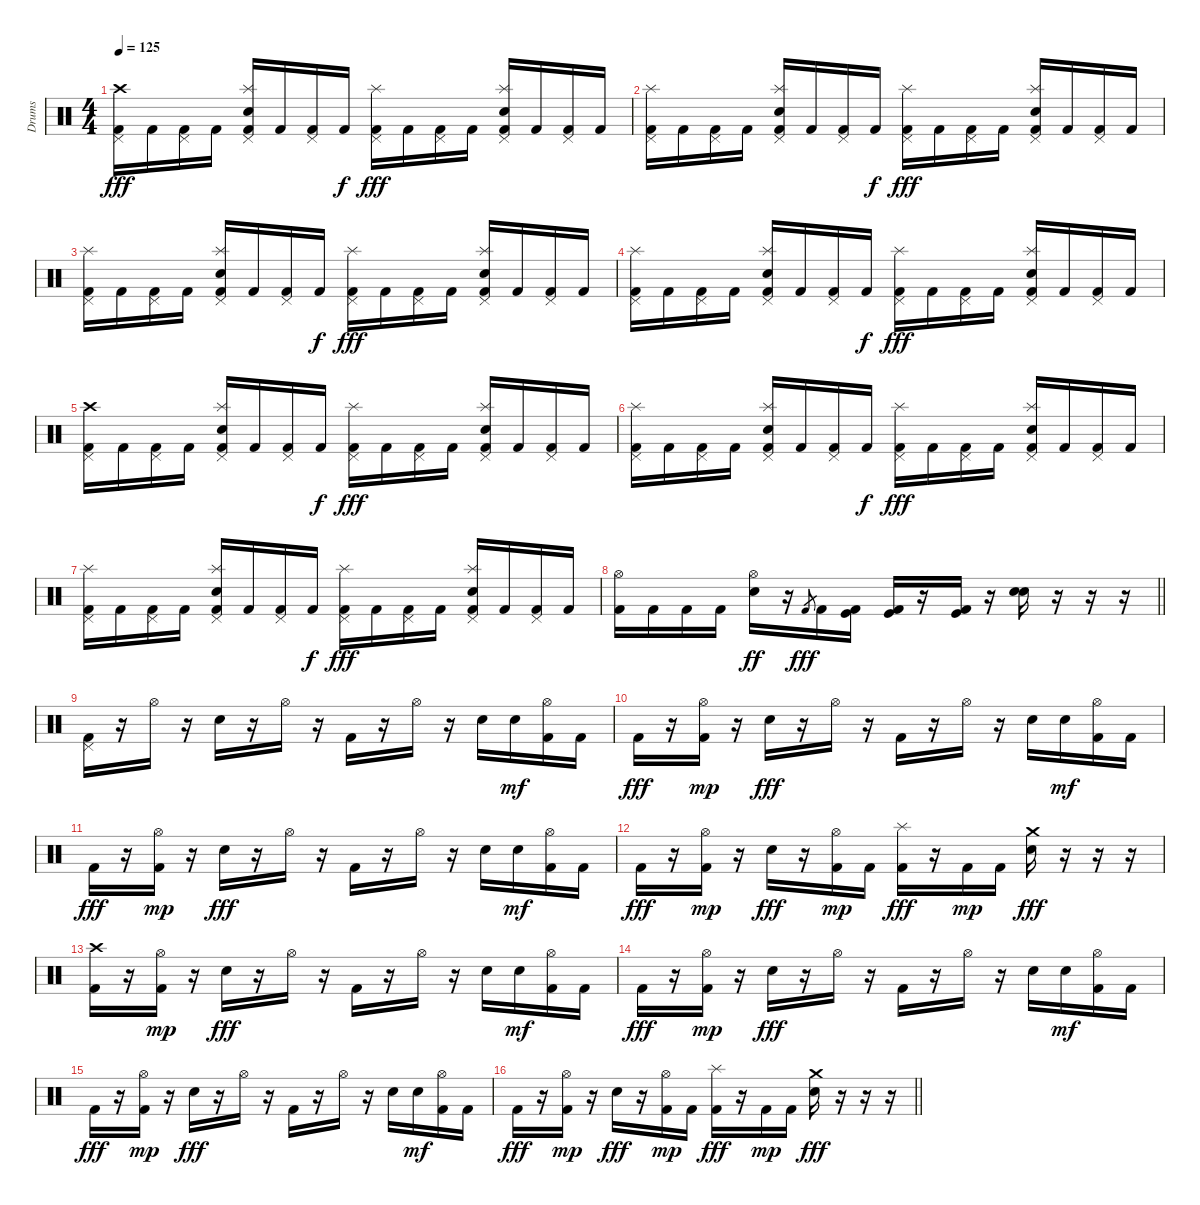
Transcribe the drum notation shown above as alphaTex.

\track ("Drums " "Drums ") {instrument percussion}
\staff {score}
\articulation defaults
\ts (4 4)
\tempo 125
\clef neutral
\ks c
("Crash high (hit)" "Pedal Hi-Hat (hit)" "Kick (hit) 2").16{dy fff} "Kick (hit) 2".16 ("Pedal Hi-Hat (hit)" "Kick (hit) 2").16 "Kick (hit) 2".16 ("Splash (hit)" "Pedal Hi-Hat (hit)" "Electric Snare (hit)" "Kick (hit) 2").16 "Kick (hit) 2".16 ("Pedal Hi-Hat (hit)" "Kick (hit) 2").16 "Kick (hit) 2".16{dy f} ("Splash (hit)" "Pedal Hi-Hat (hit)" "Kick (hit) 2").16{dy fff} "Kick (hit) 2".16 ("Pedal Hi-Hat (hit)" "Kick (hit) 2").16 "Kick (hit) 2".16 ("Splash (hit)" "Pedal Hi-Hat (hit)" "Electric Snare (hit)" "Kick (hit) 2").16 "Kick (hit) 2".16 ("Pedal Hi-Hat (hit)" "Kick (hit) 2").16 "Kick (hit) 2".16 |
("Splash (hit)" "Pedal Hi-Hat (hit)" "Kick (hit) 2").16 "Kick (hit) 2".16 ("Pedal Hi-Hat (hit)" "Kick (hit) 2").16 "Kick (hit) 2".16 ("Splash (hit)" "Pedal Hi-Hat (hit)" "Electric Snare (hit)" "Kick (hit) 2").16 "Kick (hit) 2".16 ("Pedal Hi-Hat (hit)" "Kick (hit) 2").16 "Kick (hit) 2".16{dy f} ("Splash (hit)" "Pedal Hi-Hat (hit)" "Kick (hit) 2").16{dy fff} "Kick (hit) 2".16 ("Pedal Hi-Hat (hit)" "Kick (hit) 2").16 "Kick (hit) 2".16 ("Splash (hit)" "Pedal Hi-Hat (hit)" "Electric Snare (hit)" "Kick (hit) 2").16 "Kick (hit) 2".16 ("Pedal Hi-Hat (hit)" "Kick (hit) 2").16 "Kick (hit) 2".16 |
("Splash (hit)" "Pedal Hi-Hat (hit)" "Kick (hit) 2").16 "Kick (hit) 2".16 ("Pedal Hi-Hat (hit)" "Kick (hit) 2").16 "Kick (hit) 2".16 ("Splash (hit)" "Pedal Hi-Hat (hit)" "Electric Snare (hit)" "Kick (hit) 2").16 "Kick (hit) 2".16 ("Pedal Hi-Hat (hit)" "Kick (hit) 2").16 "Kick (hit) 2".16{dy f} ("Splash (hit)" "Pedal Hi-Hat (hit)" "Kick (hit) 2").16{dy fff} "Kick (hit) 2".16 ("Pedal Hi-Hat (hit)" "Kick (hit) 2").16 "Kick (hit) 2".16 ("Splash (hit)" "Pedal Hi-Hat (hit)" "Electric Snare (hit)" "Kick (hit) 2").16 "Kick (hit) 2".16 ("Pedal Hi-Hat (hit)" "Kick (hit) 2").16 "Kick (hit) 2".16 |
("Splash (hit)" "Pedal Hi-Hat (hit)" "Kick (hit) 2").16 "Kick (hit) 2".16 ("Pedal Hi-Hat (hit)" "Kick (hit) 2").16 "Kick (hit) 2".16 ("Splash (hit)" "Pedal Hi-Hat (hit)" "Electric Snare (hit)" "Kick (hit) 2").16 "Kick (hit) 2".16 ("Pedal Hi-Hat (hit)" "Kick (hit) 2").16 "Kick (hit) 2".16{dy f} ("Splash (hit)" "Pedal Hi-Hat (hit)" "Kick (hit) 2").16{dy fff} "Kick (hit) 2".16 ("Pedal Hi-Hat (hit)" "Kick (hit) 2").16 "Kick (hit) 2".16 ("Splash (hit)" "Pedal Hi-Hat (hit)" "Electric Snare (hit)" "Kick (hit) 2").16 "Kick (hit) 2".16 ("Pedal Hi-Hat (hit)" "Kick (hit) 2").16 "Kick (hit) 2".16 |
("Crash high (hit)" "Pedal Hi-Hat (hit)" "Kick (hit) 2").16 "Kick (hit) 2".16 ("Pedal Hi-Hat (hit)" "Kick (hit) 2").16 "Kick (hit) 2".16 ("Splash (hit)" "Pedal Hi-Hat (hit)" "Electric Snare (hit)" "Kick (hit) 2").16 "Kick (hit) 2".16 ("Pedal Hi-Hat (hit)" "Kick (hit) 2").16 "Kick (hit) 2".16{dy f} ("Splash (hit)" "Pedal Hi-Hat (hit)" "Kick (hit) 2").16{dy fff} "Kick (hit) 2".16 ("Pedal Hi-Hat (hit)" "Kick (hit) 2").16 "Kick (hit) 2".16 ("Splash (hit)" "Pedal Hi-Hat (hit)" "Electric Snare (hit)" "Kick (hit) 2").16 "Kick (hit) 2".16 ("Pedal Hi-Hat (hit)" "Kick (hit) 2").16 "Kick (hit) 2".16 |
("Splash (hit)" "Pedal Hi-Hat (hit)" "Kick (hit) 2").16 "Kick (hit) 2".16 ("Pedal Hi-Hat (hit)" "Kick (hit) 2").16 "Kick (hit) 2".16 ("Splash (hit)" "Pedal Hi-Hat (hit)" "Electric Snare (hit)" "Kick (hit) 2").16 "Kick (hit) 2".16 ("Pedal Hi-Hat (hit)" "Kick (hit) 2").16 "Kick (hit) 2".16{dy f} ("Splash (hit)" "Pedal Hi-Hat (hit)" "Kick (hit) 2").16{dy fff} "Kick (hit) 2".16 ("Pedal Hi-Hat (hit)" "Kick (hit) 2").16 "Kick (hit) 2".16 ("Splash (hit)" "Pedal Hi-Hat (hit)" "Electric Snare (hit)" "Kick (hit) 2").16 "Kick (hit) 2".16 ("Pedal Hi-Hat (hit)" "Kick (hit) 2").16 "Kick (hit) 2".16 |
("Splash (hit)" "Pedal Hi-Hat (hit)" "Kick (hit) 2").16 "Kick (hit) 2".16 ("Pedal Hi-Hat (hit)" "Kick (hit) 2").16 "Kick (hit) 2".16 ("Splash (hit)" "Pedal Hi-Hat (hit)" "Electric Snare (hit)" "Kick (hit) 2").16 "Kick (hit) 2".16 ("Pedal Hi-Hat (hit)" "Kick (hit) 2").16 "Kick (hit) 2".16{dy f} ("Splash (hit)" "Pedal Hi-Hat (hit)" "Kick (hit) 2").16{dy fff} "Kick (hit) 2".16 ("Pedal Hi-Hat (hit)" "Kick (hit) 2").16 "Kick (hit) 2".16 ("Splash (hit)" "Pedal Hi-Hat (hit)" "Electric Snare (hit)" "Kick (hit) 2").16 "Kick (hit) 2".16 ("Pedal Hi-Hat (hit)" "Kick (hit) 2").16 "Kick (hit) 2".16 |
\barLineRight lightlight
("Hi-Hat (open)" "Kick (hit) 2").16 "Kick (hit) 2".16 "Kick (hit) 2".16 "Kick (hit) 2".16 ("Hi-Hat (open)" "Electric Snare (hit)").16{dy ff} r.16 "Kick (hit) 2".8{gr dy fff} "Kick (hit) 2".16 ("Kick (hit) 2" "Kick (hit)").16 ("Kick (hit) 2" "Kick (hit)").16 r.16 ("Kick (hit) 2" "Kick (hit)").16 r.16 ("Snare (hit)" "Electric Snare (hit)").16 r.16 r.16 r.16 |
("Pedal Hi-Hat (hit)" "Kick (hit) 2").16 r.16 "Hi-Hat (open)".16 r.16 "Electric Snare (hit)".16 r.16 "Hi-Hat (open)".16 r.16 "Kick (hit) 2".16 r.16 "Hi-Hat (open)".16 r.16 "Electric Snare (hit)".16 "Electric Snare (hit)".16{dy mf} ("Hi-Hat (open)" "Kick (hit) 2").16 "Kick (hit) 2".16 |
"Kick (hit) 2".16{dy fff} r.16 ("Hi-Hat (open)" "Kick (hit) 2").16{dy mp} r.16 "Electric Snare (hit)".16{dy fff} r.16 "Hi-Hat (open)".16 r.16 "Kick (hit) 2".16 r.16 "Hi-Hat (open)".16 r.16 "Electric Snare (hit)".16 "Electric Snare (hit)".16{dy mf} ("Hi-Hat (open)" "Kick (hit) 2").16 "Kick (hit) 2".16 |
"Kick (hit) 2".16{dy fff} r.16 ("Hi-Hat (open)" "Kick (hit) 2").16{dy mp} r.16 "Electric Snare (hit)".16{dy fff} r.16 "Hi-Hat (open)".16 r.16 "Kick (hit) 2".16 r.16 "Hi-Hat (open)".16 r.16 "Electric Snare (hit)".16 "Electric Snare (hit)".16{dy mf} ("Hi-Hat (open)" "Kick (hit) 2").16 "Kick (hit) 2".16 |
"Kick (hit) 2".16{dy fff} r.16 ("Hi-Hat (open)" "Kick (hit) 2").16{dy mp} r.16 "Electric Snare (hit)".16{dy fff} r.16 ("Hi-Hat (open)" "Kick (hit) 2").16{dy mp} "Kick (hit) 2".16 ("Splash (hit)" "Kick (hit) 2").16{dy fff} r.16 "Kick (hit) 2".16{dy mp} "Kick (hit) 2".16 ("Crash medium (hit)" "Electric Snare (hit)").16{dy fff} r.16 r.16 r.16 |
("Crash high (hit)" "Kick (hit) 2").16 r.16 ("Hi-Hat (open)" "Kick (hit) 2").16{dy mp} r.16 "Electric Snare (hit)".16{dy fff} r.16 "Hi-Hat (open)".16 r.16 "Kick (hit) 2".16 r.16 "Hi-Hat (open)".16 r.16 "Electric Snare (hit)".16 "Electric Snare (hit)".16{dy mf} ("Hi-Hat (open)" "Kick (hit) 2").16 "Kick (hit) 2".16 |
"Kick (hit) 2".16{dy fff} r.16 ("Hi-Hat (open)" "Kick (hit) 2").16{dy mp} r.16 "Electric Snare (hit)".16{dy fff} r.16 "Hi-Hat (open)".16 r.16 "Kick (hit) 2".16 r.16 "Hi-Hat (open)".16 r.16 "Electric Snare (hit)".16 "Electric Snare (hit)".16{dy mf} ("Hi-Hat (open)" "Kick (hit) 2").16 "Kick (hit) 2".16 |
"Kick (hit) 2".16{dy fff} r.16 ("Hi-Hat (open)" "Kick (hit) 2").16{dy mp} r.16 "Electric Snare (hit)".16{dy fff} r.16 "Hi-Hat (open)".16 r.16 "Kick (hit) 2".16 r.16 "Hi-Hat (open)".16 r.16 "Electric Snare (hit)".16 "Electric Snare (hit)".16{dy mf} ("Hi-Hat (open)" "Kick (hit) 2").16 "Kick (hit) 2".16 |
\barLineRight lightlight "Kick (hit) 2".16{dy fff}
r.16 ("Hi-Hat (open)" "Kick (hit) 2").16{dy mp} r.16 "Electric Snare (hit)".16{dy fff} r.16 ("Hi-Hat (open)" "Kick (hit) 2").16{dy mp} "Kick (hit) 2".16 ("Splash (hit)" "Kick (hit) 2").16{dy fff} r.16 "Kick (hit) 2".16{dy mp} "Kick (hit) 2".16 ("Crash medium (hit)" "Electric Snare (hit)").16{dy fff} r.16 r.16 r.16
